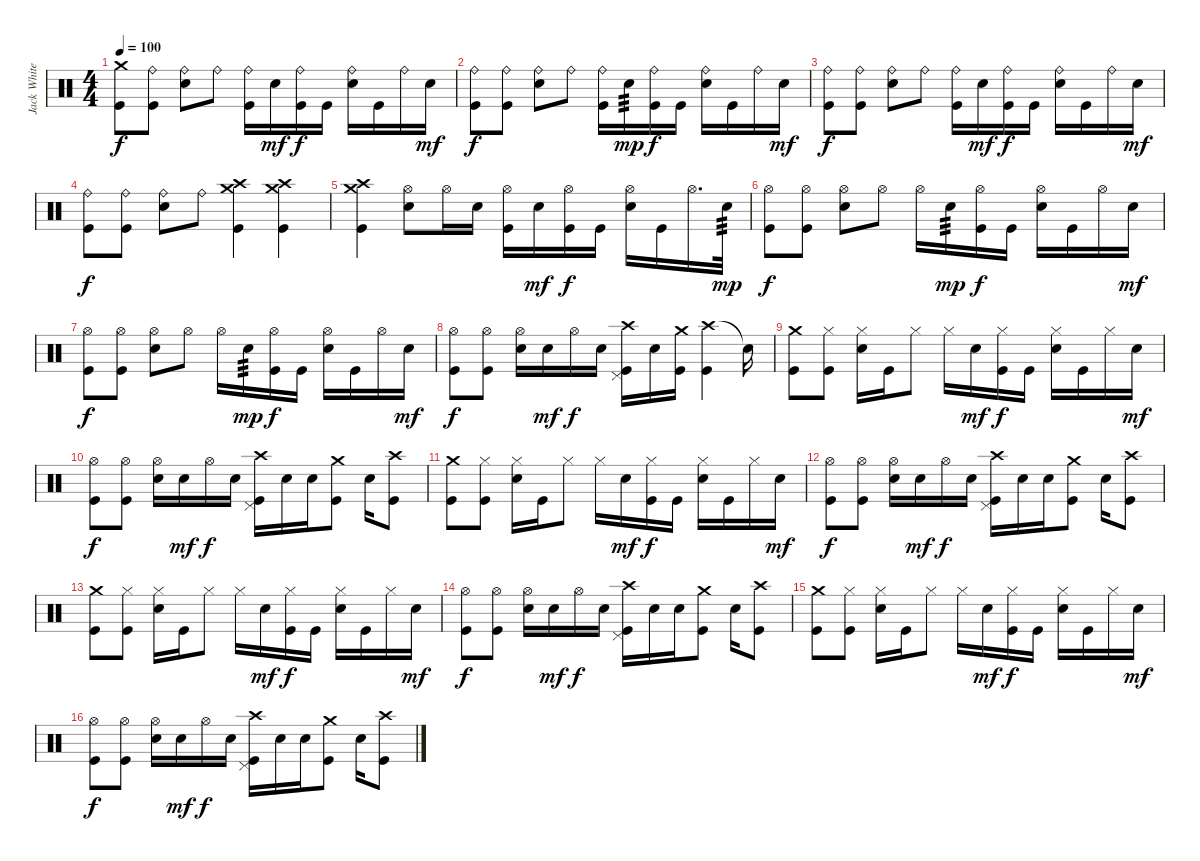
\track ("Jack White" "Jack White") {instrument percussion}
\staff
\articulation defaults
\ts (4 4)
\tempo 100
\clef neutral
\ks c
("Crash medium (hit)" "Kick (hit)").8{dy f} ("Ride (bell)" "Kick (hit)").8 ("Ride (bell)" "Snare (hit) 2").8 "Ride (bell)".8 ("Ride (bell)" "Kick (hit)").16 "Snare (hit) 2".16{dy mf} ("Ride (bell)" "Kick (hit)").16{dy f} "Kick (hit)".16 ("Ride (bell)" "Snare (hit) 2").16 "Kick (hit)".16 "Ride (bell)".16 "Snare (hit) 2".16{dy mf} |
("Ride (bell)" "Kick (hit)").8{dy f} ("Ride (bell)" "Kick (hit)").8 ("Ride (bell)" "Snare (hit) 2").8 "Ride (bell)".8 ("Ride (bell)" "Kick (hit)").16 "Snare (hit) 2".16{tp 3 dy mp} ("Ride (bell)" "Kick (hit)").16{dy f} "Kick (hit)".16 ("Ride (bell)" "Snare (hit) 2").16 "Kick (hit)".16 "Ride (bell)".16 "Snare (hit) 2".16{dy mf} |
("Ride (bell)" "Kick (hit)").8{dy f} ("Ride (bell)" "Kick (hit)").8 ("Ride (bell)" "Snare (hit) 2").8 "Ride (bell)".8 ("Ride (bell)" "Kick (hit)").16 "Snare (hit) 2".16{dy mf} ("Ride (bell)" "Kick (hit)").16{dy f} "Kick (hit)".16 ("Ride (bell)" "Snare (hit) 2").16 "Kick (hit)".16 "Ride (bell)".16 "Snare (hit) 2".16{dy mf} |
("Ride (bell)" "Kick (hit)").8{dy f} ("Ride (bell)" "Kick (hit)").8 ("Ride (bell)" "Snare (hit) 2").8 "Ride (bell)".8 ("Crash medium (hit)" "Crash high (hit)" "Kick (hit)").4 ("Crash medium (hit)" "Crash high (hit)" "Kick (hit)").4 |
("Crash medium (hit)" "Crash high (hit)" "Kick (hit)").4 ("Hi-Hat (open)" "Snare (hit) 2").8 "Hi-Hat (open)".16 "Snare (hit) 2".16 ("Hi-Hat (open)" "Kick (hit)").16 "Snare (hit) 2".16{dy mf} ("Hi-Hat (open)" "Kick (hit)").16{dy f} "Kick (hit)".16 ("Hi-Hat (open)" "Snare (hit) 2").16 "Kick (hit)".16 "Hi-Hat (open)".16{d} "Snare (hit) 2".32{tp 3 dy mp} |
("Hi-Hat (open)" "Kick (hit)").8{dy f} ("Hi-Hat (open)" "Kick (hit)").8 ("Hi-Hat (open)" "Snare (hit) 2").8 "Hi-Hat (open)".8 "Hi-Hat (open)".16 "Snare (hit) 2".16{tp 3 dy mp} ("Hi-Hat (open)" "Kick (hit)").16{dy f} "Kick (hit)".16 ("Hi-Hat (open)" "Snare (hit) 2").16 "Kick (hit)".16 "Hi-Hat (open)".16 "Snare (hit) 2".16{dy mf} |
("Hi-Hat (open)" "Kick (hit)").8{dy f} ("Hi-Hat (open)" "Kick (hit)").8 ("Hi-Hat (open)" "Snare (hit) 2").8 "Hi-Hat (open)".8 "Hi-Hat (open)".16 "Snare (hit) 2".16{tp 3 dy mp} ("Hi-Hat (open)" "Kick (hit)").16{dy f} "Kick (hit)".16 ("Hi-Hat (open)" "Snare (hit) 2").16 "Kick (hit)".16 "Hi-Hat (open)".16 "Snare (hit) 2".16{dy mf} |
("Hi-Hat (open)" "Kick (hit)").8{dy f} ("Hi-Hat (open)" "Kick (hit)").8 ("Hi-Hat (open)" "Snare (hit) 2").16 "Snare (hit) 2".16{dy mf} "Hi-Hat (open)".16{dy f} "Snare (hit) 2".16 ("Crash high (hit)" "Pedal Hi-Hat (hit)" "Kick (hit)").16 "Snare (hit) 2".16 ("Crash medium (hit)" "Kick (hit)").16 ("Crash high (hit)" "Kick (hit)").4 "Snare (hit)"{t}.16 |
("Crash medium (hit)" "Kick (hit)").8 ("Hi-Hat (closed)" "Kick (hit)").8 ("Hi-Hat (closed)" "Snare (hit) 2").16 "Kick (hit)".16 "Hi-Hat (closed)".8 "Hi-Hat (closed)".16 "Snare (hit) 2".16{dy mf} ("Hi-Hat (closed)" "Kick (hit)").16{dy f} "Kick (hit)".16 ("Hi-Hat (closed)" "Snare (hit) 2").16 "Kick (hit)".16 "Hi-Hat (closed)".16 "Snare (hit) 2".16{dy mf} |
("Hi-Hat (open)" "Kick (hit)").8{dy f} ("Hi-Hat (open)" "Kick (hit)").8 ("Hi-Hat (open)" "Snare (hit) 2").16 "Snare (hit) 2".16{dy mf} "Hi-Hat (open)".16{dy f} "Snare (hit) 2".16 ("Crash high (hit)" "Pedal Hi-Hat (hit)" "Kick (hit)").16 "Snare (hit) 2".16 "Snare (hit) 2".16 ("Crash medium (hit)" "Kick (hit)").8 "Snare (hit) 2".16 ("Crash high (hit)" "Kick (hit)").8 |
("Crash medium (hit)" "Kick (hit)").8 ("Hi-Hat (closed)" "Kick (hit)").8 ("Hi-Hat (closed)" "Snare (hit) 2").16 "Kick (hit)".16 "Hi-Hat (closed)".8 "Hi-Hat (closed)".16 "Snare (hit) 2".16{dy mf} ("Hi-Hat (closed)" "Kick (hit)").16{dy f} "Kick (hit)".16 ("Hi-Hat (closed)" "Snare (hit) 2").16 "Kick (hit)".16 "Hi-Hat (closed)".16 "Snare (hit) 2".16{dy mf} |
("Hi-Hat (open)" "Kick (hit)").8{dy f} ("Hi-Hat (open)" "Kick (hit)").8 ("Hi-Hat (open)" "Snare (hit) 2").16 "Snare (hit) 2".16{dy mf} "Hi-Hat (open)".16{dy f} "Snare (hit) 2".16 ("Crash high (hit)" "Pedal Hi-Hat (hit)" "Kick (hit)").16 "Snare (hit) 2".16 "Snare (hit) 2".16 ("Crash medium (hit)" "Kick (hit)").8 "Snare (hit) 2".16 ("Crash high (hit)" "Kick (hit)").8 |
("Crash medium (hit)" "Kick (hit)").8 ("Hi-Hat (closed)" "Kick (hit)").8 ("Hi-Hat (closed)" "Snare (hit) 2").16 "Kick (hit)".16 "Hi-Hat (closed)".8 "Hi-Hat (closed)".16 "Snare (hit) 2".16{dy mf} ("Hi-Hat (closed)" "Kick (hit)").16{dy f} "Kick (hit)".16 ("Hi-Hat (closed)" "Snare (hit) 2").16 "Kick (hit)".16 "Hi-Hat (closed)".16 "Snare (hit) 2".16{dy mf} |
("Hi-Hat (open)" "Kick (hit)").8{dy f} ("Hi-Hat (open)" "Kick (hit)").8 ("Hi-Hat (open)" "Snare (hit) 2").16 "Snare (hit) 2".16{dy mf} "Hi-Hat (open)".16{dy f} "Snare (hit) 2".16 ("Crash high (hit)" "Pedal Hi-Hat (hit)" "Kick (hit)").16 "Snare (hit) 2".16 "Snare (hit) 2".16 ("Crash medium (hit)" "Kick (hit)").8 "Snare (hit) 2".16 ("Crash high (hit)" "Kick (hit)").8 |
("Crash medium (hit)" "Kick (hit)").8 ("Hi-Hat (closed)" "Kick (hit)").8 ("Hi-Hat (closed)" "Snare (hit) 2").16 "Kick (hit)".16 "Hi-Hat (closed)".8 "Hi-Hat (closed)".16 "Snare (hit) 2".16{dy mf} ("Hi-Hat (closed)" "Kick (hit)").16{dy f} "Kick (hit)".16 ("Hi-Hat (closed)" "Snare (hit) 2").16 "Kick (hit)".16 "Hi-Hat (closed)".16 "Snare (hit) 2".16{dy mf} |
("Hi-Hat (open)" "Kick (hit)").8{dy f} ("Hi-Hat (open)" "Kick (hit)").8 ("Hi-Hat (open)" "Snare (hit) 2").16 "Snare (hit) 2".16{dy mf} "Hi-Hat (open)".16{dy f} "Snare (hit) 2".16 ("Crash high (hit)" "Pedal Hi-Hat (hit)" "Kick (hit)").16 "Snare (hit) 2".16 "Snare (hit) 2".16 ("Crash medium (hit)" "Kick (hit)").8 "Snare (hit) 2".16 ("Crash high (hit)" "Kick (hit)").8
